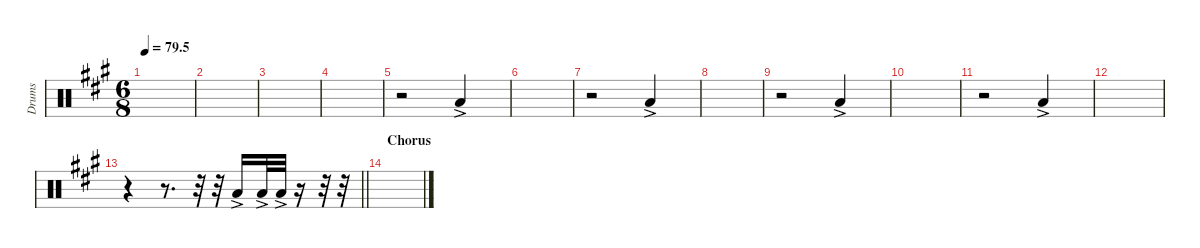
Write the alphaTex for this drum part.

\defaultSystemsLayout 4
\hideDynamics
\bracketExtendMode nobrackets
\otherSystemsTrackNameOrientation horizontal
\track ("Tom 03" "Drums") {instrument percussion}
\staff {score}
\articulation defaults
\ts (6 8)
\tempo
79.5
\accidentals auto
\clef neutral
\ottava regular
\simile none
\scale
0.333333
\ks a
|
\scale
0.333333 |
\scale
0.333333 |
\scale
0.333333 |
\scale
0.333333 r.2 "Low Tom (hit)"{ac acc forcenatural}.4 |
\scale
0.333333 |
\scale
0.333333 r.2 "Low Tom (hit)"{ac acc forcenatural}.4 |
\scale
0.333333 |
\scale
0.333333 r.2 "Low Tom (hit)"{ac acc forcenatural}.4 |
\scale
0.333333 |
\scale
0.333333 r.2 "Low Tom (hit)"{ac acc forcenatural}.4 |
\scale
0.333333 |
\scale
0.333333
\barLineRight lightlight
r.4 r.8{d} r.32 r.32 "Low Tom (hit)"{ac acc forcenatural}.16 "Low Tom (hit)"{ac acc forcenatural}.32 "Low Tom (hit)"{ac acc forcenatural}.32 r.16 r.32 r.32 |
\section ("" "Chorus")
\scale
0.333333 |
\scale
0.333333 |
\scale
0.333333
